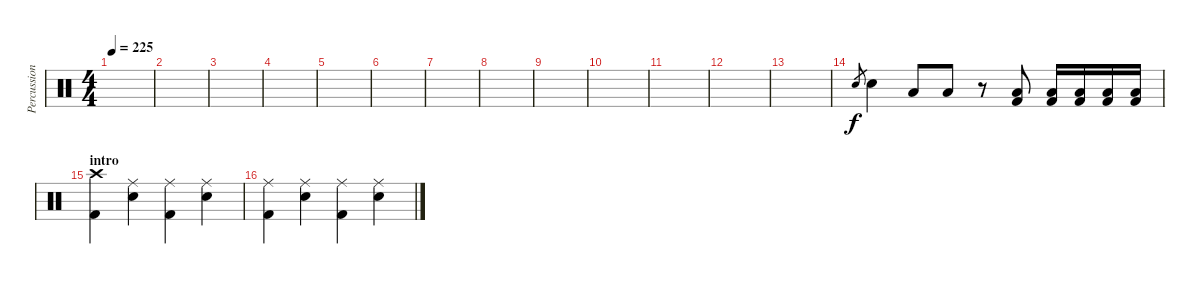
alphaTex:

\track ("Percussions" "Percussion") {instrument percussion}
\staff {score}
\articulation defaults
\ts (4 4)
\tempo 225
\clef neutral
\ks c
|
|
|
|
|
|
|
|
|
|
|
|
|
"Snare (hit) 2".8{gr} "Snare (hit) 2".4 "Low Tom (hit)".8 "Low Tom (hit)".8 r.8 ("Kick (hit) 2" "Low Floor Tom (hit)").8 ("Kick (hit) 2" "Low Floor Tom (hit)").16 ("Kick (hit) 2" "Low Floor Tom (hit)").16 ("Kick (hit) 2" "Low Floor Tom (hit)").16 ("Kick (hit) 2" "Low Floor Tom (hit)").16 |
\section ("" "intro")
("Crash high (hit)" "Kick (hit) 2").4 ("Ride (middle)" "Snare (hit) 2").4 ("Ride (middle)" "Kick (hit) 2").4 ("Ride (middle)" "Snare (hit) 2").4 |
("Ride (middle)" "Kick (hit) 2").4 ("Ride (middle)" "Snare (hit) 2").4 ("Ride (middle)" "Kick (hit) 2").4 ("Ride (middle)" "Snare (hit) 2").4
